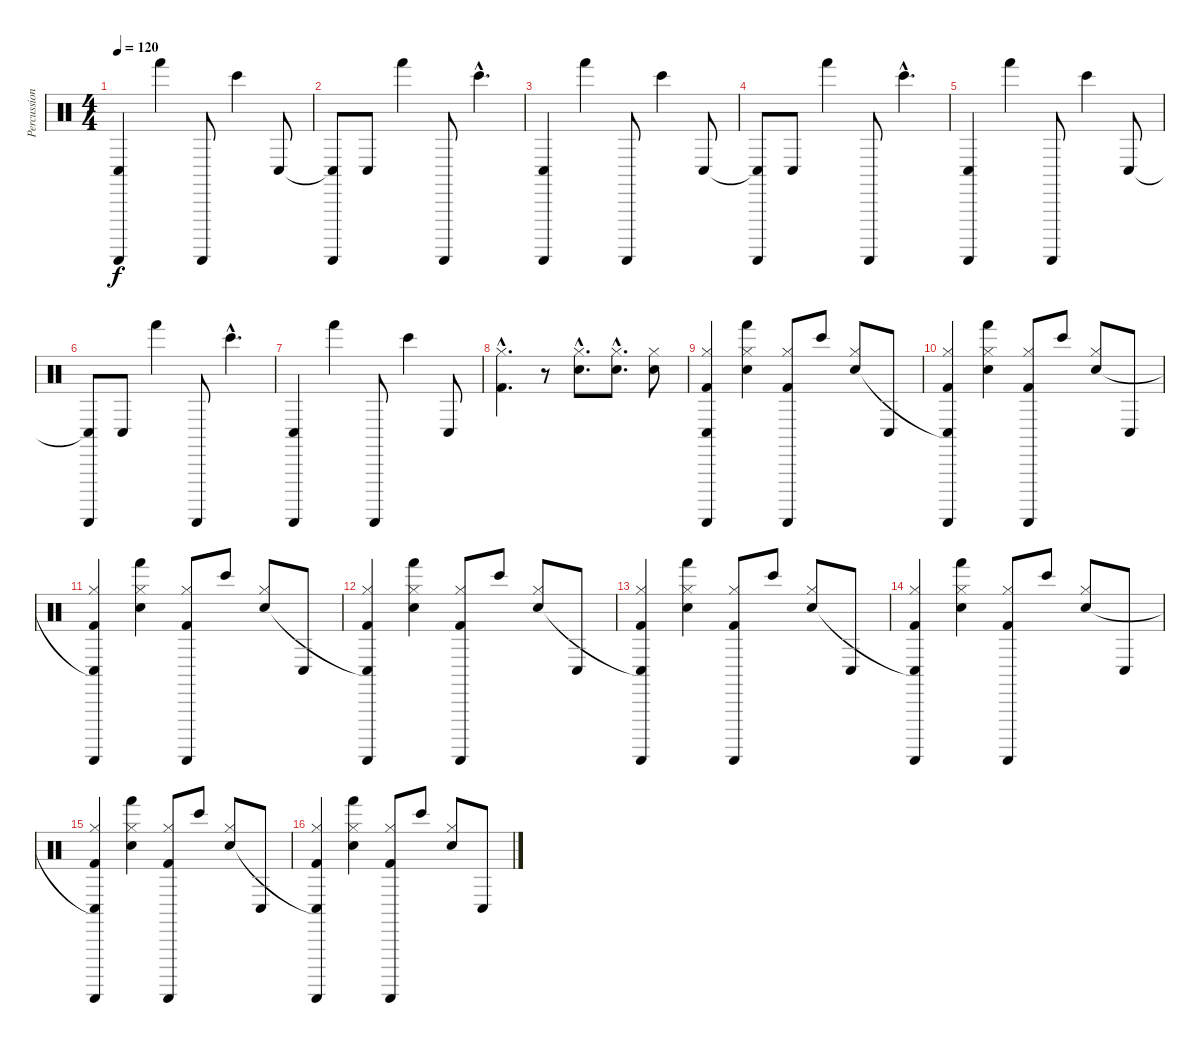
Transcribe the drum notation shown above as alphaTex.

\track ("Percussions" "Percussion") {instrument percussion}
\staff {score}
\articulation defaults
\ts (4 4)
\tempo 120
\clef neutral
\ks c
("Conga low (hit)" "Guiro (scrap-return)").4{dy f} "Hand (hit)".4 "Guiro (scrap-return)".8 "Bongo High (hit)".4 "Conga low (hit)".8 |
("Conga low (hit)"{t} "Guiro (scrap-return)").8 "Conga low (hit)".8 "Hand (hit)".4 "Guiro (scrap-return)".8 "Bongo High (hit)"{hac}.4{d} |
("Conga low (hit)" "Guiro (scrap-return)").4 "Hand (hit)".4 "Guiro (scrap-return)".8 "Bongo High (hit)".4 "Conga low (hit)".8 |
("Conga low (hit)"{t} "Guiro (scrap-return)").8 "Conga low (hit)".8 "Hand (hit)".4 "Guiro (scrap-return)".8 "Bongo High (hit)"{hac}.4{d} |
("Conga low (hit)" "Guiro (scrap-return)").4 "Hand (hit)".4 "Guiro (scrap-return)".8 "Bongo High (hit)".4 "Conga low (hit)".8 |
("Conga low (hit)"{t} "Guiro (scrap-return)").8 "Conga low (hit)".8 "Hand (hit)".4 "Guiro (scrap-return)".8 "Bongo High (hit)"{hac}.4{d} |
("Conga low (hit)" "Guiro (scrap-return)").4 "Hand (hit)".4 "Guiro (scrap-return)".8 "Bongo High (hit)".4 "Conga low (hit)".8 |
("Hi-Hat (closed)"{hac} "Kick (hit) 2"{hac}).4{d} r.8 ("Hi-Hat (closed)"{hac} "Snare (hit) 2"{hac}).8{d} ("Hi-Hat (closed)"{hac} "Snare (hit) 2"{hac}).8{d} ("Hi-Hat (closed)" "Snare (hit) 2").8 |
("Hi-Hat (closed)" "Conga low (hit)" "Guiro (scrap-return)" "Kick (hit) 2").4 ("Hi-Hat (closed)" "Hand (hit)" "Snare (hit) 2").4 ("Hi-Hat (closed)" "Guiro (scrap-return)" "Kick (hit) 2").8 "Bongo High (hit)".8 ("Hi-Hat (closed)" "Snare (hit) 2").8 "Conga low (hit)".8 |
("Hi-Hat (closed)" "Conga low (hit)"{t} "Guiro (scrap-return)" "Kick (hit) 2").4 ("Hi-Hat (closed)" "Hand (hit)" "Snare (hit) 2").4 ("Hi-Hat (closed)" "Guiro (scrap-return)" "Kick (hit) 2").8 "Bongo High (hit)".8 ("Hi-Hat (closed)" "Snare (hit) 2").8 "Conga low (hit)".8 |
("Hi-Hat (closed)" "Conga low (hit)"{t} "Guiro (scrap-return)" "Kick (hit) 2").4 ("Hi-Hat (closed)" "Hand (hit)" "Snare (hit) 2").4 ("Hi-Hat (closed)" "Guiro (scrap-return)" "Kick (hit) 2").8 "Bongo High (hit)".8 ("Hi-Hat (closed)" "Snare (hit) 2").8 "Conga low (hit)".8 |
("Hi-Hat (closed)" "Conga low (hit)"{t} "Guiro (scrap-return)" "Kick (hit) 2").4 ("Hi-Hat (closed)" "Hand (hit)" "Snare (hit) 2").4 ("Hi-Hat (closed)" "Guiro (scrap-return)" "Kick (hit) 2").8 "Bongo High (hit)".8 ("Hi-Hat (closed)" "Snare (hit) 2").8 "Conga low (hit)".8 |
("Hi-Hat (closed)" "Conga low (hit)"{t} "Guiro (scrap-return)" "Kick (hit) 2").4 ("Hi-Hat (closed)" "Hand (hit)" "Snare (hit) 2").4 ("Hi-Hat (closed)" "Guiro (scrap-return)" "Kick (hit) 2").8 "Bongo High (hit)".8 ("Hi-Hat (closed)" "Snare (hit) 2").8 "Conga low (hit)".8 |
("Hi-Hat (closed)" "Conga low (hit)"{t} "Guiro (scrap-return)" "Kick (hit) 2").4 ("Hi-Hat (closed)" "Hand (hit)" "Snare (hit) 2").4 ("Hi-Hat (closed)" "Guiro (scrap-return)" "Kick (hit) 2").8 "Bongo High (hit)".8 ("Hi-Hat (closed)" "Snare (hit) 2").8 "Conga low (hit)".8 |
("Hi-Hat (closed)" "Conga low (hit)"{t} "Guiro (scrap-return)" "Kick (hit) 2").4 ("Hi-Hat (closed)" "Hand (hit)" "Snare (hit) 2").4 ("Hi-Hat (closed)" "Guiro (scrap-return)" "Kick (hit) 2").8 "Bongo High (hit)".8 ("Hi-Hat (closed)" "Snare (hit) 2").8 "Conga low (hit)".8 |
("Hi-Hat (closed)" "Conga low (hit)"{t} "Guiro (scrap-return)" "Kick (hit) 2").4 ("Hi-Hat (closed)" "Hand (hit)" "Snare (hit) 2").4 ("Hi-Hat (closed)" "Guiro (scrap-return)" "Kick (hit) 2").8 "Bongo High (hit)".8 ("Hi-Hat (closed)" "Snare (hit) 2").8 "Conga low (hit)".8
